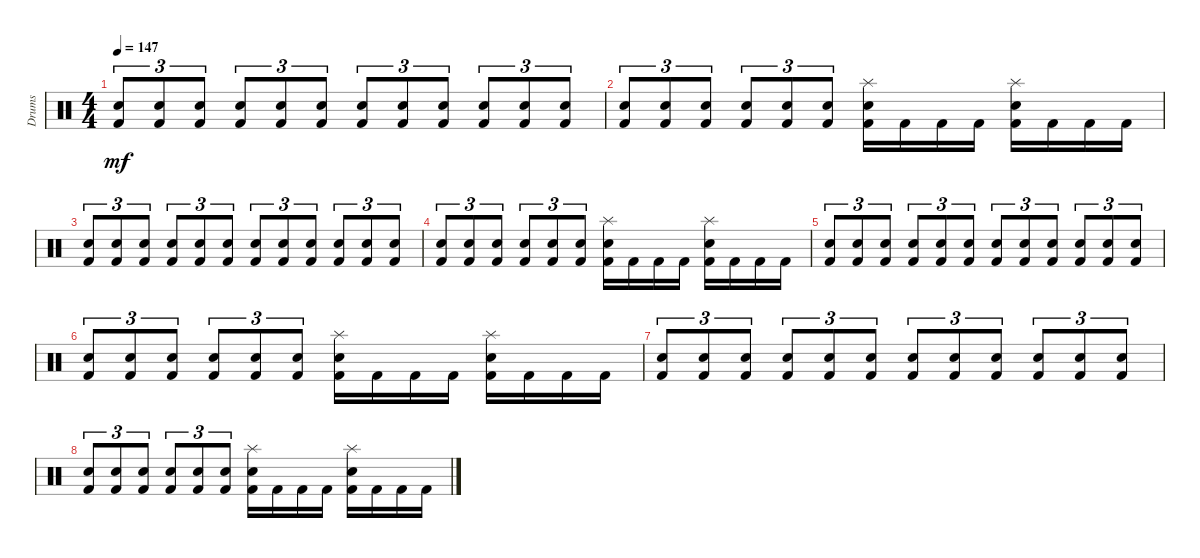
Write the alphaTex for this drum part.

\track ("Drums" "Drums") {instrument percussion}
\staff {score}
\articulation defaults
\ts (4 4)
\tempo 147
\clef neutral
\ks c
("Kick (hit) 2" "Snare (hit) 2").8{tu (3 2) dy mf} ("Kick (hit) 2" "Snare (hit) 2").8{tu (3 2)} ("Kick (hit) 2" "Snare (hit) 2").8{tu (3 2)} ("Kick (hit) 2" "Snare (hit) 2").8{tu (3 2)} ("Kick (hit) 2" "Snare (hit) 2").8{tu (3 2)} ("Kick (hit) 2" "Snare (hit) 2").8{tu (3 2)} ("Kick (hit) 2" "Snare (hit) 2").8{tu (3 2)} ("Kick (hit) 2" "Snare (hit) 2").8{tu (3 2)} ("Kick (hit) 2" "Snare (hit) 2").8{tu (3 2)} ("Kick (hit) 2" "Snare (hit) 2").8{tu (3 2)} ("Kick (hit) 2" "Snare (hit) 2").8{tu (3 2)} ("Kick (hit) 2" "Snare (hit) 2").8{tu (3 2)} |
("Kick (hit) 2" "Snare (hit) 2").8{tu (3 2)} ("Kick (hit) 2" "Snare (hit) 2").8{tu (3 2)} ("Kick (hit) 2" "Snare (hit) 2").8{tu (3 2)} ("Kick (hit) 2" "Snare (hit) 2").8{tu (3 2)} ("Kick (hit) 2" "Snare (hit) 2").8{tu (3 2)} ("Kick (hit) 2" "Snare (hit) 2").8{tu (3 2)} ("Kick (hit) 2" "Snare (hit) 2" "Splash (hit)").16 "Kick (hit) 2".16 "Kick (hit) 2".16 "Kick (hit) 2".16 ("Kick (hit) 2" "Snare (hit) 2" "Splash (hit)").16 "Kick (hit) 2".16 "Kick (hit) 2".16 "Kick (hit) 2".16 |
("Kick (hit) 2" "Snare (hit) 2").8{tu (3 2)} ("Kick (hit) 2" "Snare (hit) 2").8{tu (3 2)} ("Kick (hit) 2" "Snare (hit) 2").8{tu (3 2)} ("Kick (hit) 2" "Snare (hit) 2").8{tu (3 2)} ("Kick (hit) 2" "Snare (hit) 2").8{tu (3 2)} ("Kick (hit) 2" "Snare (hit) 2").8{tu (3 2)} ("Kick (hit) 2" "Snare (hit) 2").8{tu (3 2)} ("Kick (hit) 2" "Snare (hit) 2").8{tu (3 2)} ("Kick (hit) 2" "Snare (hit) 2").8{tu (3 2)} ("Kick (hit) 2" "Snare (hit) 2").8{tu (3 2)} ("Kick (hit) 2" "Snare (hit) 2").8{tu (3 2)} ("Kick (hit) 2" "Snare (hit) 2").8{tu (3 2)} |
("Kick (hit) 2" "Snare (hit) 2").8{tu (3 2)} ("Kick (hit) 2" "Snare (hit) 2").8{tu (3 2)} ("Kick (hit) 2" "Snare (hit) 2").8{tu (3 2)} ("Kick (hit) 2" "Snare (hit) 2").8{tu (3 2)} ("Kick (hit) 2" "Snare (hit) 2").8{tu (3 2)} ("Kick (hit) 2" "Snare (hit) 2").8{tu (3 2)} ("Kick (hit) 2" "Snare (hit) 2" "Splash (hit)").16 "Kick (hit) 2".16 "Kick (hit) 2".16 "Kick (hit) 2".16 ("Kick (hit) 2" "Snare (hit) 2" "Splash (hit)").16 "Kick (hit) 2".16 "Kick (hit) 2".16 "Kick (hit) 2".16 |
("Kick (hit) 2" "Snare (hit) 2").8{tu (3 2)} ("Kick (hit) 2" "Snare (hit) 2").8{tu (3 2)} ("Kick (hit) 2" "Snare (hit) 2").8{tu (3 2)} ("Kick (hit) 2" "Snare (hit) 2").8{tu (3 2)} ("Kick (hit) 2" "Snare (hit) 2").8{tu (3 2)} ("Kick (hit) 2" "Snare (hit) 2").8{tu (3 2)} ("Kick (hit) 2" "Snare (hit) 2").8{tu (3 2)} ("Kick (hit) 2" "Snare (hit) 2").8{tu (3 2)} ("Kick (hit) 2" "Snare (hit) 2").8{tu (3 2)} ("Kick (hit) 2" "Snare (hit) 2").8{tu (3 2)} ("Kick (hit) 2" "Snare (hit) 2").8{tu (3 2)} ("Kick (hit) 2" "Snare (hit) 2").8{tu (3 2)} |
("Kick (hit) 2" "Snare (hit) 2").8{tu (3 2)} ("Kick (hit) 2" "Snare (hit) 2").8{tu (3 2)} ("Kick (hit) 2" "Snare (hit) 2").8{tu (3 2)} ("Kick (hit) 2" "Snare (hit) 2").8{tu (3 2)} ("Kick (hit) 2" "Snare (hit) 2").8{tu (3 2)} ("Kick (hit) 2" "Snare (hit) 2").8{tu (3 2)} ("Kick (hit) 2" "Snare (hit) 2" "Splash (hit)").16 "Kick (hit) 2".16 "Kick (hit) 2".16 "Kick (hit) 2".16 ("Kick (hit) 2" "Snare (hit) 2" "Splash (hit)").16 "Kick (hit) 2".16 "Kick (hit) 2".16 "Kick (hit) 2".16 |
("Kick (hit) 2" "Snare (hit) 2").8{tu (3 2)} ("Kick (hit) 2" "Snare (hit) 2").8{tu (3 2)} ("Kick (hit) 2" "Snare (hit) 2").8{tu (3 2)} ("Kick (hit) 2" "Snare (hit) 2").8{tu (3 2)} ("Kick (hit) 2" "Snare (hit) 2").8{tu (3 2)} ("Kick (hit) 2" "Snare (hit) 2").8{tu (3 2)} ("Kick (hit) 2" "Snare (hit) 2").8{tu (3 2)} ("Kick (hit) 2" "Snare (hit) 2").8{tu (3 2)} ("Kick (hit) 2" "Snare (hit) 2").8{tu (3 2)} ("Kick (hit) 2" "Snare (hit) 2").8{tu (3 2)} ("Kick (hit) 2" "Snare (hit) 2").8{tu (3 2)} ("Kick (hit) 2" "Snare (hit) 2").8{tu (3 2)} |
("Kick (hit) 2" "Snare (hit) 2").8{tu (3 2)} ("Kick (hit) 2" "Snare (hit) 2").8{tu (3 2)} ("Kick (hit) 2" "Snare (hit) 2").8{tu (3 2)} ("Kick (hit) 2" "Snare (hit) 2").8{tu (3 2)} ("Kick (hit) 2" "Snare (hit) 2").8{tu (3 2)} ("Kick (hit) 2" "Snare (hit) 2").8{tu (3 2)} ("Kick (hit) 2" "Snare (hit) 2" "Splash (hit)").16 "Kick (hit) 2".16 "Kick (hit) 2".16 "Kick (hit) 2".16 ("Kick (hit) 2" "Snare (hit) 2" "Splash (hit)").16 "Kick (hit) 2".16 "Kick (hit) 2".16 "Kick (hit) 2".16
